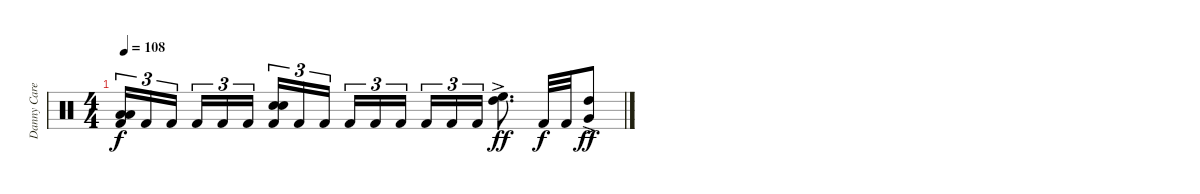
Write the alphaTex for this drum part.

\track ("Danny Carey" "Danny Care") {instrument percussion}
\staff {score}
\articulation defaults
\ts (4 4)
\tempo 108
\clef neutral
\ks c
("Low Floor Tom (hit)" "Low Floor Tom (hit)" "Kick (hit) 2").16{tu (3 2) dy f} "Kick (hit) 2".16{tu (3 2)} "Kick (hit) 2".16{tu (3 2)} "Kick (hit) 2".16{tu (3 2)} "Kick (hit) 2".16{tu (3 2)} "Kick (hit) 2".16{tu (3 2)} ("Electric Snare (hit)" "Electric Snare (hit)" "Kick (hit) 2").16{tu (3 2)} "Kick (hit) 2".16{tu (3 2)} "Kick (hit) 2".16{tu (3 2)} "Kick (hit) 2".16{tu (3 2)} "Kick (hit) 2".16{tu (3 2)} "Kick (hit) 2".16{tu (3 2)} "Kick (hit) 2".16{tu (3 2)} "Kick (hit) 2".16{tu (3 2)} "Kick (hit) 2".16{tu (3 2)} ("High Floor Tom (hit)"{ac} "High Tom (hit)"{ac}).8{d dy ff} "Kick (hit) 2".32{dy f} "Kick (hit) 2".32 ("High Tom (hit)"{ac} "Very Low Tom (hit)"{ac}).8{dy ff}
